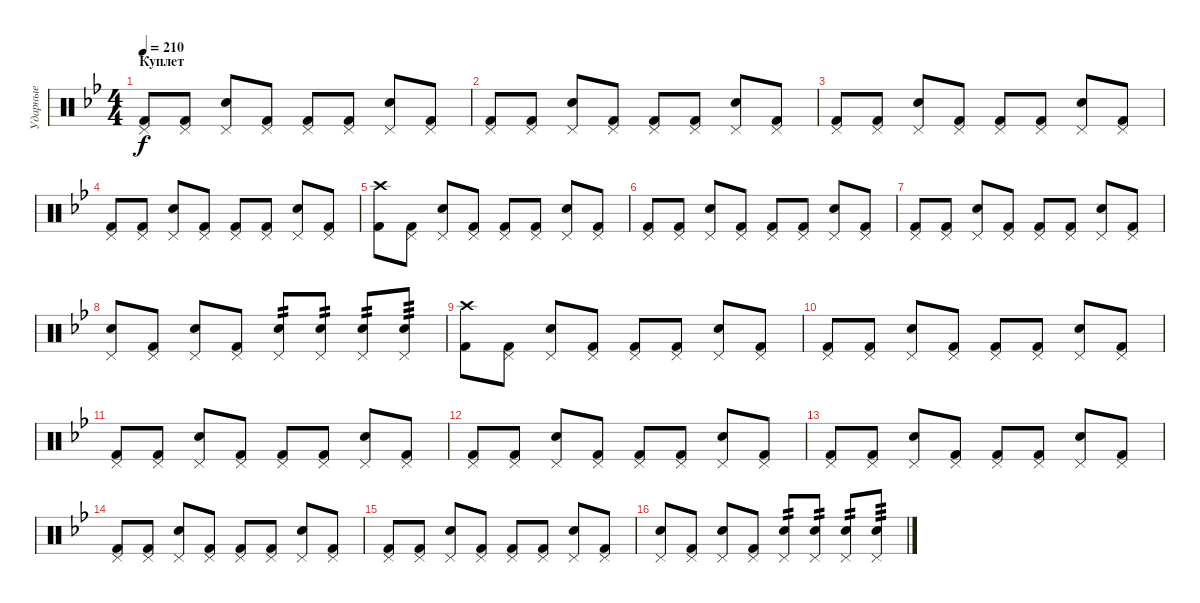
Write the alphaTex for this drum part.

\track ("Ударные" "Ударные") {instrument percussion}
\staff {score}
\articulation defaults
\ts (4 4)
\section ("" "Куплет")
\tempo 210
\clef neutral
\ks bb
("Pedal Hi-Hat (hit)" "Kick (hit) 2").8{dy f} ("Pedal Hi-Hat (hit)" "Kick (hit) 2").8 ("Pedal Hi-Hat (hit)" "Electric Snare (hit)").8 ("Pedal Hi-Hat (hit)" "Kick (hit) 2").8 ("Pedal Hi-Hat (hit)" "Kick (hit) 2").8 ("Pedal Hi-Hat (hit)" "Kick (hit) 2").8 ("Pedal Hi-Hat (hit)" "Electric Snare (hit)").8 ("Pedal Hi-Hat (hit)" "Kick (hit) 2").8 |
("Pedal Hi-Hat (hit)" "Kick (hit) 2").8 ("Pedal Hi-Hat (hit)" "Kick (hit) 2").8 ("Pedal Hi-Hat (hit)" "Electric Snare (hit)").8 ("Pedal Hi-Hat (hit)" "Kick (hit) 2").8 ("Pedal Hi-Hat (hit)" "Kick (hit) 2").8 ("Pedal Hi-Hat (hit)" "Kick (hit) 2").8 ("Pedal Hi-Hat (hit)" "Electric Snare (hit)").8 ("Pedal Hi-Hat (hit)" "Kick (hit) 2").8 |
("Pedal Hi-Hat (hit)" "Kick (hit) 2").8 ("Pedal Hi-Hat (hit)" "Kick (hit) 2").8 ("Pedal Hi-Hat (hit)" "Electric Snare (hit)").8 ("Pedal Hi-Hat (hit)" "Kick (hit) 2").8 ("Pedal Hi-Hat (hit)" "Kick (hit) 2").8 ("Pedal Hi-Hat (hit)" "Kick (hit) 2").8 ("Pedal Hi-Hat (hit)" "Electric Snare (hit)").8 ("Pedal Hi-Hat (hit)" "Kick (hit) 2").8 |
("Pedal Hi-Hat (hit)" "Kick (hit) 2").8 ("Pedal Hi-Hat (hit)" "Kick (hit) 2").8 ("Pedal Hi-Hat (hit)" "Electric Snare (hit)").8 ("Pedal Hi-Hat (hit)" "Kick (hit) 2").8 ("Pedal Hi-Hat (hit)" "Kick (hit) 2").8 ("Pedal Hi-Hat (hit)" "Kick (hit) 2").8 ("Pedal Hi-Hat (hit)" "Electric Snare (hit)").8 ("Pedal Hi-Hat (hit)" "Kick (hit) 2").8 |
("Crash high (hit)" "Kick (hit) 2").8 ("Pedal Hi-Hat (hit)" "Kick (hit) 2").8 ("Pedal Hi-Hat (hit)" "Electric Snare (hit)").8 ("Pedal Hi-Hat (hit)" "Kick (hit) 2").8 ("Pedal Hi-Hat (hit)" "Kick (hit) 2").8 ("Pedal Hi-Hat (hit)" "Kick (hit) 2").8 ("Pedal Hi-Hat (hit)" "Electric Snare (hit)").8 ("Pedal Hi-Hat (hit)" "Kick (hit) 2").8 |
("Pedal Hi-Hat (hit)" "Kick (hit) 2").8 ("Pedal Hi-Hat (hit)" "Kick (hit) 2").8 ("Pedal Hi-Hat (hit)" "Electric Snare (hit)").8 ("Pedal Hi-Hat (hit)" "Kick (hit) 2").8 ("Pedal Hi-Hat (hit)" "Kick (hit) 2").8 ("Pedal Hi-Hat (hit)" "Kick (hit) 2").8 ("Pedal Hi-Hat (hit)" "Electric Snare (hit)").8 ("Pedal Hi-Hat (hit)" "Kick (hit) 2").8 |
("Pedal Hi-Hat (hit)" "Kick (hit) 2").8 ("Pedal Hi-Hat (hit)" "Kick (hit) 2").8 ("Pedal Hi-Hat (hit)" "Electric Snare (hit)").8 ("Pedal Hi-Hat (hit)" "Kick (hit) 2").8 ("Pedal Hi-Hat (hit)" "Kick (hit) 2").8 ("Pedal Hi-Hat (hit)" "Kick (hit) 2").8 ("Pedal Hi-Hat (hit)" "Electric Snare (hit)").8 ("Pedal Hi-Hat (hit)" "Kick (hit) 2").8 |
("Pedal Hi-Hat (hit)" "Electric Snare (hit)").8 ("Pedal Hi-Hat (hit)" "Kick (hit) 2").8 ("Pedal Hi-Hat (hit)" "Electric Snare (hit)").8 ("Pedal Hi-Hat (hit)" "Kick (hit) 2").8 ("Pedal Hi-Hat (hit)" "Electric Snare (hit)").8{tp 2} ("Pedal Hi-Hat (hit)" "Electric Snare (hit)").8{tp 2} ("Pedal Hi-Hat (hit)" "Electric Snare (hit)").8{tp 2} ("Pedal Hi-Hat (hit)" "Electric Snare (hit)").8{tp 3} |
("Crash high (hit)" "Kick (hit) 2").8 ("Pedal Hi-Hat (hit)" "Kick (hit) 2").8 ("Pedal Hi-Hat (hit)" "Electric Snare (hit)").8 ("Pedal Hi-Hat (hit)" "Kick (hit) 2").8 ("Pedal Hi-Hat (hit)" "Kick (hit) 2").8 ("Pedal Hi-Hat (hit)" "Kick (hit) 2").8 ("Pedal Hi-Hat (hit)" "Electric Snare (hit)").8 ("Pedal Hi-Hat (hit)" "Kick (hit) 2").8 |
("Pedal Hi-Hat (hit)" "Kick (hit) 2").8 ("Pedal Hi-Hat (hit)" "Kick (hit) 2").8 ("Pedal Hi-Hat (hit)" "Electric Snare (hit)").8 ("Pedal Hi-Hat (hit)" "Kick (hit) 2").8 ("Pedal Hi-Hat (hit)" "Kick (hit) 2").8 ("Pedal Hi-Hat (hit)" "Kick (hit) 2").8 ("Pedal Hi-Hat (hit)" "Electric Snare (hit)").8 ("Pedal Hi-Hat (hit)" "Kick (hit) 2").8 |
("Pedal Hi-Hat (hit)" "Kick (hit) 2").8 ("Pedal Hi-Hat (hit)" "Kick (hit) 2").8 ("Pedal Hi-Hat (hit)" "Electric Snare (hit)").8 ("Pedal Hi-Hat (hit)" "Kick (hit) 2").8 ("Pedal Hi-Hat (hit)" "Kick (hit) 2").8 ("Pedal Hi-Hat (hit)" "Kick (hit) 2").8 ("Pedal Hi-Hat (hit)" "Electric Snare (hit)").8 ("Pedal Hi-Hat (hit)" "Kick (hit) 2").8 |
("Pedal Hi-Hat (hit)" "Kick (hit) 2").8 ("Pedal Hi-Hat (hit)" "Kick (hit) 2").8 ("Pedal Hi-Hat (hit)" "Electric Snare (hit)").8 ("Pedal Hi-Hat (hit)" "Kick (hit) 2").8 ("Pedal Hi-Hat (hit)" "Kick (hit) 2").8 ("Pedal Hi-Hat (hit)" "Kick (hit) 2").8 ("Pedal Hi-Hat (hit)" "Electric Snare (hit)").8 ("Pedal Hi-Hat (hit)" "Kick (hit) 2").8 |
("Pedal Hi-Hat (hit)" "Kick (hit) 2").8 ("Pedal Hi-Hat (hit)" "Kick (hit) 2").8 ("Pedal Hi-Hat (hit)" "Electric Snare (hit)").8 ("Pedal Hi-Hat (hit)" "Kick (hit) 2").8 ("Pedal Hi-Hat (hit)" "Kick (hit) 2").8 ("Pedal Hi-Hat (hit)" "Kick (hit) 2").8 ("Pedal Hi-Hat (hit)" "Electric Snare (hit)").8 ("Pedal Hi-Hat (hit)" "Kick (hit) 2").8 |
("Pedal Hi-Hat (hit)" "Kick (hit) 2").8 ("Pedal Hi-Hat (hit)" "Kick (hit) 2").8 ("Pedal Hi-Hat (hit)" "Electric Snare (hit)").8 ("Pedal Hi-Hat (hit)" "Kick (hit) 2").8 ("Pedal Hi-Hat (hit)" "Kick (hit) 2").8 ("Pedal Hi-Hat (hit)" "Kick (hit) 2").8 ("Pedal Hi-Hat (hit)" "Electric Snare (hit)").8 ("Pedal Hi-Hat (hit)" "Kick (hit) 2").8 |
("Pedal Hi-Hat (hit)" "Kick (hit) 2").8 ("Pedal Hi-Hat (hit)" "Kick (hit) 2").8 ("Pedal Hi-Hat (hit)" "Electric Snare (hit)").8 ("Pedal Hi-Hat (hit)" "Kick (hit) 2").8 ("Pedal Hi-Hat (hit)" "Kick (hit) 2").8 ("Pedal Hi-Hat (hit)" "Kick (hit) 2").8 ("Pedal Hi-Hat (hit)" "Electric Snare (hit)").8 ("Pedal Hi-Hat (hit)" "Kick (hit) 2").8 |
("Pedal Hi-Hat (hit)" "Electric Snare (hit)").8 ("Pedal Hi-Hat (hit)" "Kick (hit) 2").8 ("Pedal Hi-Hat (hit)" "Electric Snare (hit)").8 ("Pedal Hi-Hat (hit)" "Kick (hit) 2").8 ("Pedal Hi-Hat (hit)" "Electric Snare (hit)").8{tp 2} ("Pedal Hi-Hat (hit)" "Electric Snare (hit)").8{tp 2} ("Pedal Hi-Hat (hit)" "Electric Snare (hit)").8{tp 2} ("Pedal Hi-Hat (hit)" "Electric Snare (hit)").8{tp 3}
